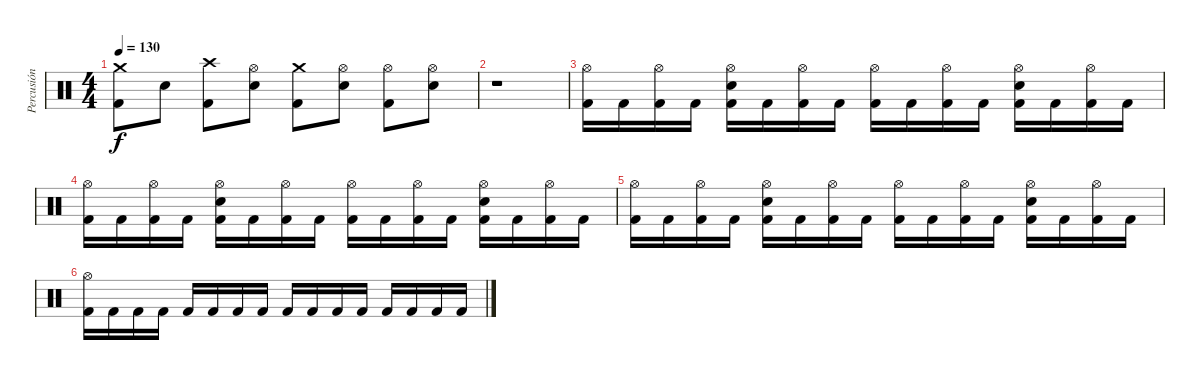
\track ("Percusión" "Percusión") {instrument percussion}
\staff {score}
\articulation defaults
\ts (4 4)
\tempo 130
\clef neutral
\ks c
("Crash medium (hit)" "Kick (hit) 2").8{dy f} "Snare (hit) 2".8 ("Crash high (hit)" "Kick (hit) 2").8 ("Hi-Hat (open)" "Snare (hit) 2").8 ("Crash medium (hit)" "Kick (hit) 2").8 ("Hi-Hat (open)" "Snare (hit) 2").8 ("Hi-Hat (open)" "Kick (hit) 2").8 ("Hi-Hat (open)" "Snare (hit) 2").8 |
r.1 |
("Hi-Hat (open)" "Kick (hit) 2").16 "Kick (hit) 2".16 ("Hi-Hat (open)" "Kick (hit) 2").16 "Kick (hit) 2".16 ("Hi-Hat (open)" "Snare (hit) 2" "Kick (hit) 2").16 "Kick (hit) 2".16 ("Hi-Hat (open)" "Kick (hit) 2").16 "Kick (hit) 2".16 ("Hi-Hat (open)" "Kick (hit) 2").16 "Kick (hit) 2".16 ("Hi-Hat (open)" "Kick (hit) 2").16 "Kick (hit) 2".16 ("Hi-Hat (open)" "Snare (hit) 2" "Kick (hit) 2").16 "Kick (hit) 2".16 ("Hi-Hat (open)" "Kick (hit) 2").16 "Kick (hit) 2".16 |
("Hi-Hat (open)" "Kick (hit) 2").16 "Kick (hit) 2".16 ("Hi-Hat (open)" "Kick (hit) 2").16 "Kick (hit) 2".16 ("Hi-Hat (open)" "Snare (hit) 2" "Kick (hit) 2").16 "Kick (hit) 2".16 ("Hi-Hat (open)" "Kick (hit) 2").16 "Kick (hit) 2".16 ("Hi-Hat (open)" "Kick (hit) 2").16 "Kick (hit) 2".16 ("Hi-Hat (open)" "Kick (hit) 2").16 "Kick (hit) 2".16 ("Hi-Hat (open)" "Snare (hit) 2" "Kick (hit) 2").16 "Kick (hit) 2".16 ("Hi-Hat (open)" "Kick (hit) 2").16 "Kick (hit) 2".16 |
("Hi-Hat (open)" "Kick (hit) 2").16 "Kick (hit) 2".16 ("Hi-Hat (open)" "Kick (hit) 2").16 "Kick (hit) 2".16 ("Hi-Hat (open)" "Snare (hit) 2" "Kick (hit) 2").16 "Kick (hit) 2".16 ("Hi-Hat (open)" "Kick (hit) 2").16 "Kick (hit) 2".16 ("Hi-Hat (open)" "Kick (hit) 2").16 "Kick (hit) 2".16 ("Hi-Hat (open)" "Kick (hit) 2").16 "Kick (hit) 2".16 ("Hi-Hat (open)" "Snare (hit) 2" "Kick (hit) 2").16 "Kick (hit) 2".16 ("Hi-Hat (open)" "Kick (hit) 2").16 "Kick (hit) 2".16 |
("Hi-Hat (open)" "Kick (hit) 2").16 "Kick (hit) 2".16 "Kick (hit) 2".16 "Kick (hit) 2".16 "Kick (hit) 2".16 "Kick (hit) 2".16 "Kick (hit) 2".16 "Kick (hit) 2".16 "Kick (hit) 2".16 "Kick (hit) 2".16 "Kick (hit) 2".16 "Kick (hit) 2".16 "Kick (hit) 2".16 "Kick (hit) 2".16 "Kick (hit) 2".16 "Kick (hit) 2".16
